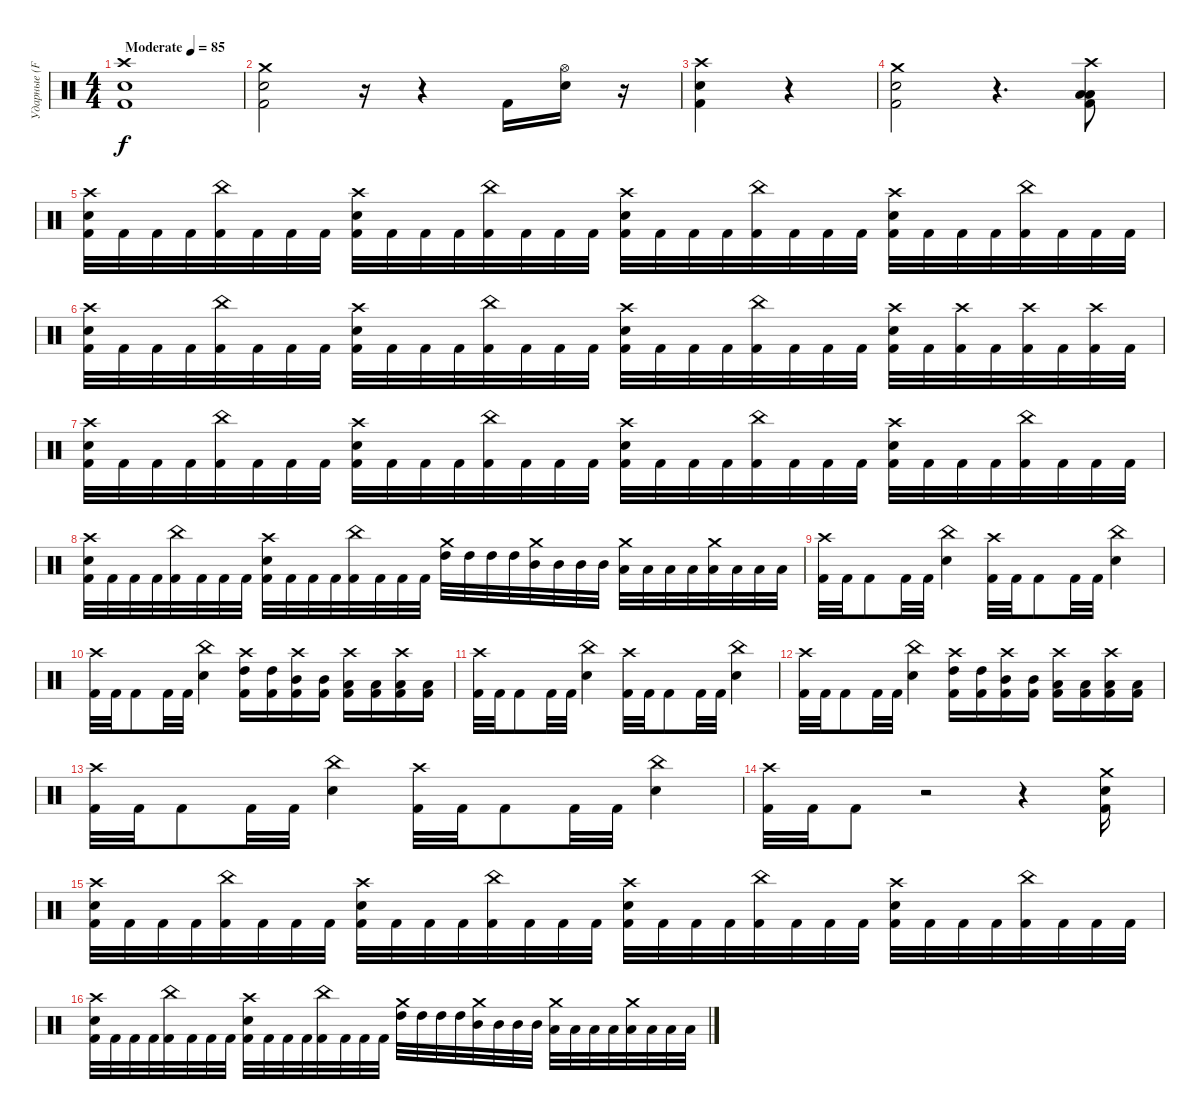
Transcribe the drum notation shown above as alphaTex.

\track ("Ударные (Feud'or)" "Ударные (F") {instrument percussion}
\staff {score}
\articulation defaults
\ts (4 4)
\tempo (85 "Moderate")
\clef neutral
\ks c
("Crash high (hit)" "Kick (hit) 2" "Electric Snare (hit)").1{dy f} |
("Crash medium (hit)" "Kick (hit) 2" "Electric Snare (hit)").2 r.16 r.4 "Kick (hit) 2".16 ("Hi-Hat (open)" "Electric Snare (hit)").16 r.16 |
("Crash high (hit)" "Kick (hit) 2" "Electric Snare (hit)").4 r.4 |
("Crash medium (hit)" "Kick (hit) 2" "Electric Snare (hit)").2 r.4{d} ("Crash high (hit)" "Low Tom (hit)" "Low Floor Tom (hit)" "Kick (hit) 2").8 |
("Crash high (hit)" "Electric Snare (hit)" "Kick (hit) 2").32 "Kick (hit) 2".32 "Kick (hit) 2".32 "Kick (hit) 2".32 ("China (hit)" "Kick (hit) 2").32 "Kick (hit) 2".32 "Kick (hit) 2".32 "Kick (hit) 2".32 ("Crash high (hit)" "Electric Snare (hit)" "Kick (hit) 2").32 "Kick (hit) 2".32 "Kick (hit) 2".32 "Kick (hit) 2".32 ("China (hit)" "Kick (hit) 2").32 "Kick (hit) 2".32 "Kick (hit) 2".32 "Kick (hit) 2".32 ("Crash high (hit)" "Electric Snare (hit)" "Kick (hit) 2").32 "Kick (hit) 2".32 "Kick (hit) 2".32 "Kick (hit) 2".32 ("China (hit)" "Kick (hit) 2").32 "Kick (hit) 2".32 "Kick (hit) 2".32 "Kick (hit) 2".32 ("Crash high (hit)" "Electric Snare (hit)" "Kick (hit) 2").32 "Kick (hit) 2".32 "Kick (hit) 2".32 "Kick (hit) 2".32 ("China (hit)" "Kick (hit) 2").32 "Kick (hit) 2".32 "Kick (hit) 2".32 "Kick (hit) 2".32 |
("Crash high (hit)" "Electric Snare (hit)" "Kick (hit) 2").32 "Kick (hit) 2".32 "Kick (hit) 2".32 "Kick (hit) 2".32 ("China (hit)" "Kick (hit) 2").32 "Kick (hit) 2".32 "Kick (hit) 2".32 "Kick (hit) 2".32 ("Crash high (hit)" "Electric Snare (hit)" "Kick (hit) 2").32 "Kick (hit) 2".32 "Kick (hit) 2".32 "Kick (hit) 2".32 ("China (hit)" "Kick (hit) 2").32 "Kick (hit) 2".32 "Kick (hit) 2".32 "Kick (hit) 2".32 ("Crash high (hit)" "Electric Snare (hit)" "Kick (hit) 2").32 "Kick (hit) 2".32 "Kick (hit) 2".32 "Kick (hit) 2".32 ("China (hit)" "Kick (hit) 2").32 "Kick (hit) 2".32 "Kick (hit) 2".32 "Kick (hit) 2".32 ("Crash high (hit)" "Electric Snare (hit)" "Kick (hit) 2").32 "Kick (hit) 2".32 ("Crash high (hit)" "Kick (hit) 2").32 "Kick (hit) 2".32 ("Crash high (hit)" "Kick (hit) 2").32 "Kick (hit) 2".32 ("Crash high (hit)" "Kick (hit) 2").32 "Kick (hit) 2".32 |
("Crash high (hit)" "Electric Snare (hit)" "Kick (hit) 2").32 "Kick (hit) 2".32 "Kick (hit) 2".32 "Kick (hit) 2".32 ("China (hit)" "Kick (hit) 2").32 "Kick (hit) 2".32 "Kick (hit) 2".32 "Kick (hit) 2".32 ("Crash high (hit)" "Electric Snare (hit)" "Kick (hit) 2").32 "Kick (hit) 2".32 "Kick (hit) 2".32 "Kick (hit) 2".32 ("China (hit)" "Kick (hit) 2").32 "Kick (hit) 2".32 "Kick (hit) 2".32 "Kick (hit) 2".32 ("Crash high (hit)" "Electric Snare (hit)" "Kick (hit) 2").32 "Kick (hit) 2".32 "Kick (hit) 2".32 "Kick (hit) 2".32 ("China (hit)" "Kick (hit) 2").32 "Kick (hit) 2".32 "Kick (hit) 2".32 "Kick (hit) 2".32 ("Crash high (hit)" "Electric Snare (hit)" "Kick (hit) 2").32 "Kick (hit) 2".32 "Kick (hit) 2".32 "Kick (hit) 2".32 ("China (hit)" "Kick (hit) 2").32 "Kick (hit) 2".32 "Kick (hit) 2".32 "Kick (hit) 2".32 |
("Crash high (hit)" "Electric Snare (hit)" "Kick (hit) 2").32 "Kick (hit) 2".32 "Kick (hit) 2".32 "Kick (hit) 2".32 ("China (hit)" "Kick (hit) 2").32 "Kick (hit) 2".32 "Kick (hit) 2".32 "Kick (hit) 2".32 ("Crash high (hit)" "Electric Snare (hit)" "Kick (hit) 2").32 "Kick (hit) 2".32 "Kick (hit) 2".32 "Kick (hit) 2".32 ("China (hit)" "Kick (hit) 2").32 "Kick (hit) 2".32 "Kick (hit) 2".32 "Kick (hit) 2".32 ("Crash medium (hit)" "High Tom (hit)").32 "High Tom (hit)".32 "High Tom (hit)".32 "High Tom (hit)".32 ("Crash medium (hit)" "Mid Tom (hit)").32 "Mid Tom (hit)".32 "Mid Tom (hit)".32 "Mid Tom (hit)".32 ("Crash medium (hit)" "Low Tom (hit)").32 "Low Tom (hit)".32 "Low Tom (hit)".32 "Low Tom (hit)".32 ("Crash medium (hit)" "Low Floor Tom (hit)").32 "Low Floor Tom (hit)".32 "Low Floor Tom (hit)".32 "Low Floor Tom (hit)".32 |
("Crash high (hit)" "Kick (hit) 2").32 "Kick (hit) 2".32 "Kick (hit) 2".8 "Kick (hit) 2".32 "Kick (hit) 2".32 ("China (hit)" "Electric Snare (hit)").4 ("Crash high (hit)" "Kick (hit) 2").32 "Kick (hit) 2".32 "Kick (hit) 2".8 "Kick (hit) 2".32 "Kick (hit) 2".32 ("China (hit)" "Electric Snare (hit)").4 |
("Crash high (hit)" "Kick (hit) 2").32 "Kick (hit) 2".32 "Kick (hit) 2".8 "Kick (hit) 2".32 "Kick (hit) 2".32 ("China (hit)" "Electric Snare (hit)").4 ("Crash high (hit)" "High Tom (hit)" "Kick (hit) 2").16 ("High Tom (hit)" "Kick (hit) 2").16 ("Crash high (hit)" "Mid Tom (hit)" "Kick (hit) 2").16 ("Mid Tom (hit)" "Kick (hit) 2").16 ("Crash high (hit)" "Low Tom (hit)" "Kick (hit) 2").16 ("Low Tom (hit)" "Kick (hit) 2").16 ("Crash high (hit)" "Low Floor Tom (hit)" "Kick (hit) 2").16 ("Low Floor Tom (hit)" "Kick (hit) 2").16 |
("Crash high (hit)" "Kick (hit) 2").32 "Kick (hit) 2".32 "Kick (hit) 2".8 "Kick (hit) 2".32 "Kick (hit) 2".32 ("China (hit)" "Electric Snare (hit)").4 ("Crash high (hit)" "Kick (hit) 2").32 "Kick (hit) 2".32 "Kick (hit) 2".8 "Kick (hit) 2".32 "Kick (hit) 2".32 ("China (hit)" "Electric Snare (hit)").4 |
("Crash high (hit)" "Kick (hit) 2").32 "Kick (hit) 2".32 "Kick (hit) 2".8 "Kick (hit) 2".32 "Kick (hit) 2".32 ("China (hit)" "Electric Snare (hit)").4 ("Crash high (hit)" "High Tom (hit)" "Kick (hit) 2").16 ("High Tom (hit)" "Kick (hit) 2").16 ("Crash high (hit)" "Mid Tom (hit)" "Kick (hit) 2").16 ("Mid Tom (hit)" "Kick (hit) 2").16 ("Crash high (hit)" "Low Tom (hit)" "Kick (hit) 2").16 ("Low Tom (hit)" "Kick (hit) 2").16 ("Crash high (hit)" "Low Floor Tom (hit)" "Kick (hit) 2").16 ("Low Floor Tom (hit)" "Kick (hit) 2").16 |
("Crash high (hit)" "Kick (hit) 2").32 "Kick (hit) 2".32 "Kick (hit) 2".8 "Kick (hit) 2".32 "Kick (hit) 2".32 ("China (hit)" "Electric Snare (hit)").4 ("Crash high (hit)" "Kick (hit) 2").32 "Kick (hit) 2".32 "Kick (hit) 2".8 "Kick (hit) 2".32 "Kick (hit) 2".32 ("China (hit)" "Electric Snare (hit)").4 |
("Crash high (hit)" "Kick (hit) 2").32 "Kick (hit) 2".32 "Kick (hit) 2".8 r.2 r.4 ("Crash medium (hit)" "Electric Snare (hit)" "Kick (hit) 2").16 |
("Crash high (hit)" "Electric Snare (hit)" "Kick (hit) 2").32 "Kick (hit) 2".32 "Kick (hit) 2".32 "Kick (hit) 2".32 ("China (hit)" "Kick (hit) 2").32 "Kick (hit) 2".32 "Kick (hit) 2".32 "Kick (hit) 2".32 ("Crash high (hit)" "Electric Snare (hit)" "Kick (hit) 2").32 "Kick (hit) 2".32 "Kick (hit) 2".32 "Kick (hit) 2".32 ("China (hit)" "Kick (hit) 2").32 "Kick (hit) 2".32 "Kick (hit) 2".32 "Kick (hit) 2".32 ("Crash high (hit)" "Electric Snare (hit)" "Kick (hit) 2").32 "Kick (hit) 2".32 "Kick (hit) 2".32 "Kick (hit) 2".32 ("China (hit)" "Kick (hit) 2").32 "Kick (hit) 2".32 "Kick (hit) 2".32 "Kick (hit) 2".32 ("Crash high (hit)" "Electric Snare (hit)" "Kick (hit) 2").32 "Kick (hit) 2".32 "Kick (hit) 2".32 "Kick (hit) 2".32 ("China (hit)" "Kick (hit) 2").32 "Kick (hit) 2".32 "Kick (hit) 2".32 "Kick (hit) 2".32 |
("Crash high (hit)" "Electric Snare (hit)" "Kick (hit) 2").32 "Kick (hit) 2".32 "Kick (hit) 2".32 "Kick (hit) 2".32 ("China (hit)" "Kick (hit) 2").32 "Kick (hit) 2".32 "Kick (hit) 2".32 "Kick (hit) 2".32 ("Crash high (hit)" "Electric Snare (hit)" "Kick (hit) 2").32 "Kick (hit) 2".32 "Kick (hit) 2".32 "Kick (hit) 2".32 ("China (hit)" "Kick (hit) 2").32 "Kick (hit) 2".32 "Kick (hit) 2".32 "Kick (hit) 2".32 ("Crash medium (hit)" "High Tom (hit)").32 "High Tom (hit)".32 "High Tom (hit)".32 "High Tom (hit)".32 ("Crash medium (hit)" "Mid Tom (hit)").32 "Mid Tom (hit)".32 "Mid Tom (hit)".32 "Mid Tom (hit)".32 ("Crash medium (hit)" "Low Tom (hit)").32 "Low Tom (hit)".32 "Low Tom (hit)".32 "Low Tom (hit)".32 ("Crash medium (hit)" "Low Floor Tom (hit)").32 "Low Floor Tom (hit)".32 "Low Floor Tom (hit)".32 "Low Floor Tom (hit)".32
